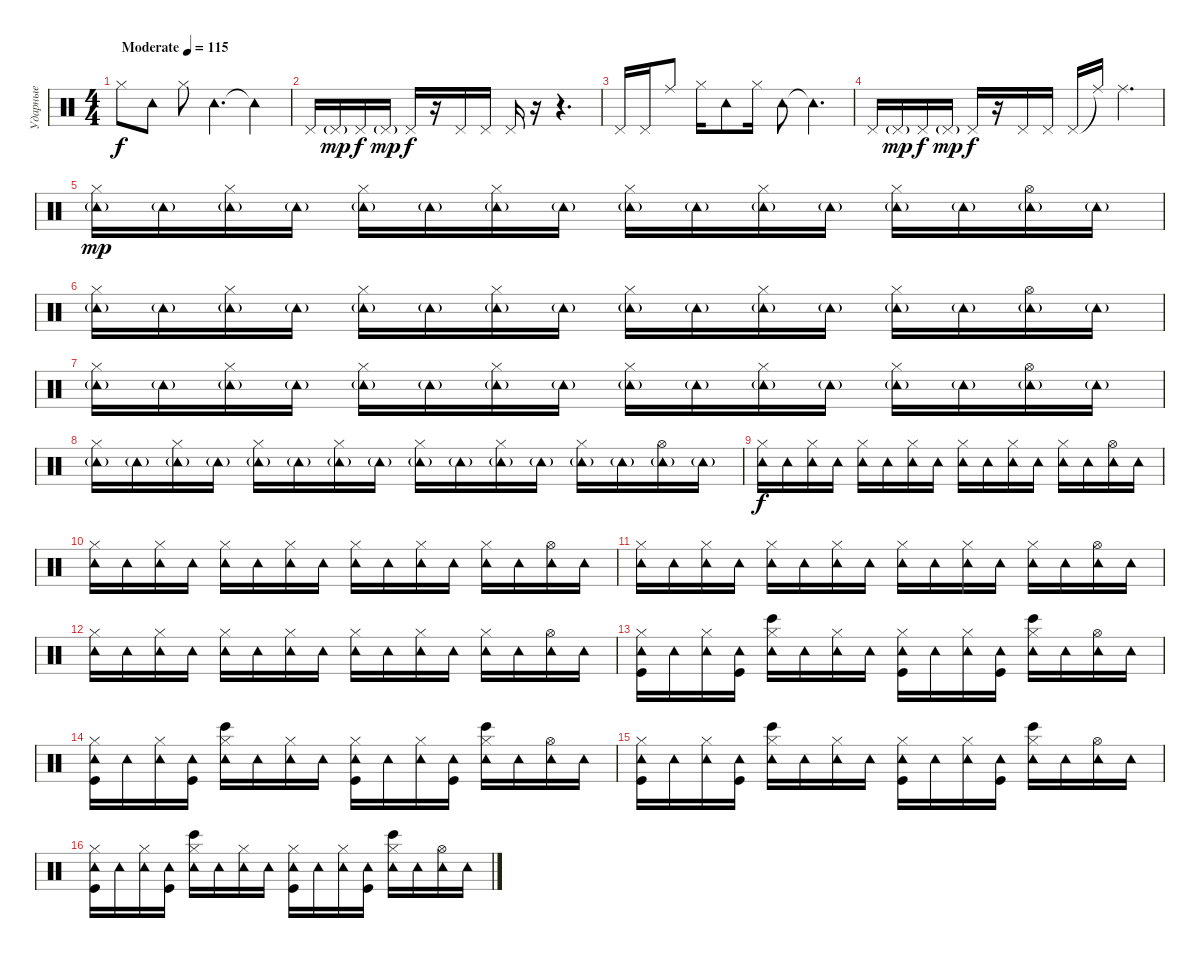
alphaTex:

\track ("Ударные" "Ударные") {instrument percussion}
\staff {score}
\articulation defaults
\ts (4 4)
\tempo (115 "Moderate")
\clef neutral
\ks c "Hi-Hat (closed)".8{dy f} "Tambourine (hit)".8 "Hi-Hat (closed)".8 "Tambourine (hit)".4{d} "Tambourine (hit)"{t}.4
|
"Pedal Hi-Hat (hit)".16 "Pedal Hi-Hat (hit)"{g}.16{dy mp} "Pedal Hi-Hat (hit)".16{dy f} "Pedal Hi-Hat (hit)"{g}.16{dy mp} "Pedal Hi-Hat (hit)".16{dy f} r.16 "Pedal Hi-Hat (hit)".16 "Pedal Hi-Hat (hit)".16 "Pedal Hi-Hat (hit)".16 r.16 r.4{d} |
"Pedal Hi-Hat (hit)".16 "Pedal Hi-Hat (hit)".16 "Ride (middle)".8 "Hi-Hat (closed)".16 "Tambourine (hit)".8 "Hi-Hat (closed)".16 "Tambourine (hit)".8 "Tambourine (hit)"{t}.4{d} |
"Pedal Hi-Hat (hit)".16 "Pedal Hi-Hat (hit)"{g}.16{dy mp} "Pedal Hi-Hat (hit)".16{dy f} "Pedal Hi-Hat (hit)"{g}.16{dy mp} "Pedal Hi-Hat (hit)".16{dy f} r.16 "Pedal Hi-Hat (hit)".16 "Pedal Hi-Hat (hit)".16 "Pedal Hi-Hat (hit)".16 "Ride (middle)"{t}.16 "Ride (middle)".4{d} |
("Tambourine (hit)"{g} "Hi-Hat (closed)").16{dy mp volume 11} "Tambourine (hit)"{g}.16 ("Tambourine (hit)"{g} "Hi-Hat (closed)").16 "Tambourine (hit)"{g}.16 ("Tambourine (hit)"{g} "Hi-Hat (closed)").16 "Tambourine (hit)"{g}.16 ("Tambourine (hit)"{g} "Hi-Hat (closed)").16 "Tambourine (hit)"{g}.16 ("Tambourine (hit)"{g} "Hi-Hat (closed)").16 "Tambourine (hit)"{g}.16 ("Tambourine (hit)"{g} "Hi-Hat (closed)").16 "Tambourine (hit)"{g}.16 ("Tambourine (hit)"{g} "Hi-Hat (closed)").16 "Tambourine (hit)"{g}.16 ("Tambourine (hit)"{g} "Hi-Hat (open)").16 "Tambourine (hit)"{g}.16 |
("Tambourine (hit)"{g} "Hi-Hat (closed)").16 "Tambourine (hit)"{g}.16 ("Tambourine (hit)"{g} "Hi-Hat (closed)").16 "Tambourine (hit)"{g}.16 ("Tambourine (hit)"{g} "Hi-Hat (closed)").16 "Tambourine (hit)"{g}.16 ("Tambourine (hit)"{g} "Hi-Hat (closed)").16 "Tambourine (hit)"{g}.16 ("Tambourine (hit)"{g} "Hi-Hat (closed)").16 "Tambourine (hit)"{g}.16 ("Tambourine (hit)"{g} "Hi-Hat (closed)").16 "Tambourine (hit)"{g}.16 ("Tambourine (hit)"{g} "Hi-Hat (closed)").16 "Tambourine (hit)"{g}.16 ("Tambourine (hit)"{g} "Hi-Hat (open)").16 "Tambourine (hit)"{g}.16 |
("Tambourine (hit)"{g} "Hi-Hat (closed)").16 "Tambourine (hit)"{g}.16 ("Tambourine (hit)"{g} "Hi-Hat (closed)").16 "Tambourine (hit)"{g}.16 ("Tambourine (hit)"{g} "Hi-Hat (closed)").16 "Tambourine (hit)"{g}.16 ("Tambourine (hit)"{g} "Hi-Hat (closed)").16 "Tambourine (hit)"{g}.16 ("Tambourine (hit)"{g} "Hi-Hat (closed)").16 "Tambourine (hit)"{g}.16 ("Tambourine (hit)"{g} "Hi-Hat (closed)").16 "Tambourine (hit)"{g}.16 ("Tambourine (hit)"{g} "Hi-Hat (closed)").16 "Tambourine (hit)"{g}.16 ("Tambourine (hit)"{g} "Hi-Hat (open)").16 "Tambourine (hit)"{g}.16 |
("Tambourine (hit)"{g} "Hi-Hat (closed)").16 "Tambourine (hit)"{g}.16 ("Tambourine (hit)"{g} "Hi-Hat (closed)").16 "Tambourine (hit)"{g}.16 ("Tambourine (hit)"{g} "Hi-Hat (closed)").16 "Tambourine (hit)"{g}.16 ("Tambourine (hit)"{g} "Hi-Hat (closed)").16 "Tambourine (hit)"{g}.16 ("Tambourine (hit)"{g} "Hi-Hat (closed)").16 "Tambourine (hit)"{g}.16 ("Tambourine (hit)"{g} "Hi-Hat (closed)").16 "Tambourine (hit)"{g}.16 ("Tambourine (hit)"{g} "Hi-Hat (closed)").16 "Tambourine (hit)"{g}.16 ("Tambourine (hit)"{g} "Hi-Hat (open)").16 "Tambourine (hit)"{g}.16 |
("Tambourine (hit)" "Hi-Hat (closed)").16{dy f} "Tambourine (hit)".16 ("Tambourine (hit)" "Hi-Hat (closed)").16 "Tambourine (hit)".16 ("Tambourine (hit)" "Hi-Hat (closed)").16 "Tambourine (hit)".16 ("Tambourine (hit)" "Hi-Hat (closed)").16 "Tambourine (hit)".16 ("Tambourine (hit)" "Hi-Hat (closed)").16 "Tambourine (hit)".16 ("Tambourine (hit)" "Hi-Hat (closed)").16 "Tambourine (hit)".16 ("Tambourine (hit)" "Hi-Hat (closed)").16 "Tambourine (hit)".16 ("Tambourine (hit)" "Hi-Hat (open)").16 "Tambourine (hit)".16 |
("Tambourine (hit)" "Hi-Hat (closed)").16 "Tambourine (hit)".16 ("Tambourine (hit)" "Hi-Hat (closed)").16 "Tambourine (hit)".16 ("Tambourine (hit)" "Hi-Hat (closed)").16 "Tambourine (hit)".16 ("Tambourine (hit)" "Hi-Hat (closed)").16 "Tambourine (hit)".16 ("Tambourine (hit)" "Hi-Hat (closed)").16 "Tambourine (hit)".16 ("Tambourine (hit)" "Hi-Hat (closed)").16 "Tambourine (hit)".16 ("Tambourine (hit)" "Hi-Hat (closed)").16 "Tambourine (hit)".16 ("Tambourine (hit)" "Hi-Hat (open)").16 "Tambourine (hit)".16 |
("Tambourine (hit)" "Hi-Hat (closed)").16 "Tambourine (hit)".16 ("Tambourine (hit)" "Hi-Hat (closed)").16 "Tambourine (hit)".16 ("Tambourine (hit)" "Hi-Hat (closed)").16 "Tambourine (hit)".16 ("Tambourine (hit)" "Hi-Hat (closed)").16 "Tambourine (hit)".16 ("Tambourine (hit)" "Hi-Hat (closed)").16 "Tambourine (hit)".16 ("Tambourine (hit)" "Hi-Hat (closed)").16 "Tambourine (hit)".16 ("Tambourine (hit)" "Hi-Hat (closed)").16 "Tambourine (hit)".16 ("Tambourine (hit)" "Hi-Hat (open)").16 "Tambourine (hit)".16 |
("Tambourine (hit)" "Hi-Hat (closed)").16 "Tambourine (hit)".16 ("Tambourine (hit)" "Hi-Hat (closed)").16 "Tambourine (hit)".16 ("Tambourine (hit)" "Hi-Hat (closed)").16 "Tambourine (hit)".16 ("Tambourine (hit)" "Hi-Hat (closed)").16 "Tambourine (hit)".16 ("Tambourine (hit)" "Hi-Hat (closed)").16 "Tambourine (hit)".16 ("Tambourine (hit)" "Hi-Hat (closed)").16 "Tambourine (hit)".16 ("Tambourine (hit)" "Hi-Hat (closed)").16 "Tambourine (hit)".16 ("Tambourine (hit)" "Hi-Hat (open)").16 "Tambourine (hit)".16 |
("Tambourine (hit)" "Hi-Hat (closed)" "Kick (hit)").16 "Tambourine (hit)".16 ("Tambourine (hit)" "Hi-Hat (closed)").16 ("Tambourine (hit)" "Kick (hit)").16 ("Tambourine (hit)" "Hi-Hat (closed)" "Bongo High (hit)").16 "Tambourine (hit)".16 ("Tambourine (hit)" "Hi-Hat (closed)").16 "Tambourine (hit)".16 ("Tambourine (hit)" "Hi-Hat (closed)" "Kick (hit)").16 "Tambourine (hit)".16 ("Tambourine (hit)" "Hi-Hat (closed)").16 ("Tambourine (hit)" "Kick (hit)").16 ("Tambourine (hit)" "Hi-Hat (closed)" "Bongo High (hit)").16 "Tambourine (hit)".16 ("Tambourine (hit)" "Hi-Hat (open)").16 "Tambourine (hit)".16 |
("Tambourine (hit)" "Hi-Hat (closed)" "Kick (hit)").16 "Tambourine (hit)".16 ("Tambourine (hit)" "Hi-Hat (closed)").16 ("Tambourine (hit)" "Kick (hit)").16 ("Tambourine (hit)" "Hi-Hat (closed)" "Bongo High (hit)").16 "Tambourine (hit)".16 ("Tambourine (hit)" "Hi-Hat (closed)").16 "Tambourine (hit)".16 ("Tambourine (hit)" "Hi-Hat (closed)" "Kick (hit)").16 "Tambourine (hit)".16 ("Tambourine (hit)" "Hi-Hat (closed)").16 ("Tambourine (hit)" "Kick (hit)").16 ("Tambourine (hit)" "Hi-Hat (closed)" "Bongo High (hit)").16 "Tambourine (hit)".16 ("Tambourine (hit)" "Hi-Hat (open)").16 "Tambourine (hit)".16 |
("Tambourine (hit)" "Hi-Hat (closed)" "Kick (hit)").16 "Tambourine (hit)".16 ("Tambourine (hit)" "Hi-Hat (closed)").16 ("Tambourine (hit)" "Kick (hit)").16 ("Tambourine (hit)" "Hi-Hat (closed)" "Bongo High (hit)").16 "Tambourine (hit)".16 ("Tambourine (hit)" "Hi-Hat (closed)").16 "Tambourine (hit)".16 ("Tambourine (hit)" "Hi-Hat (closed)" "Kick (hit)").16 "Tambourine (hit)".16 ("Tambourine (hit)" "Hi-Hat (closed)").16 ("Tambourine (hit)" "Kick (hit)").16 ("Tambourine (hit)" "Hi-Hat (closed)" "Bongo High (hit)").16 "Tambourine (hit)".16 ("Tambourine (hit)" "Hi-Hat (open)").16 "Tambourine (hit)".16 |
("Tambourine (hit)" "Hi-Hat (closed)" "Kick (hit)").16 "Tambourine (hit)".16 ("Tambourine (hit)" "Hi-Hat (closed)").16 ("Tambourine (hit)" "Kick (hit)").16 ("Tambourine (hit)" "Hi-Hat (closed)" "Bongo High (hit)").16 "Tambourine (hit)".16 ("Tambourine (hit)" "Hi-Hat (closed)").16 "Tambourine (hit)".16 ("Tambourine (hit)" "Hi-Hat (closed)" "Kick (hit)").16 "Tambourine (hit)".16 ("Tambourine (hit)" "Hi-Hat (closed)").16 ("Tambourine (hit)" "Kick (hit)").16 ("Tambourine (hit)" "Hi-Hat (closed)" "Bongo High (hit)").16 "Tambourine (hit)".16 ("Tambourine (hit)" "Hi-Hat (open)").16 "Tambourine (hit)".16
